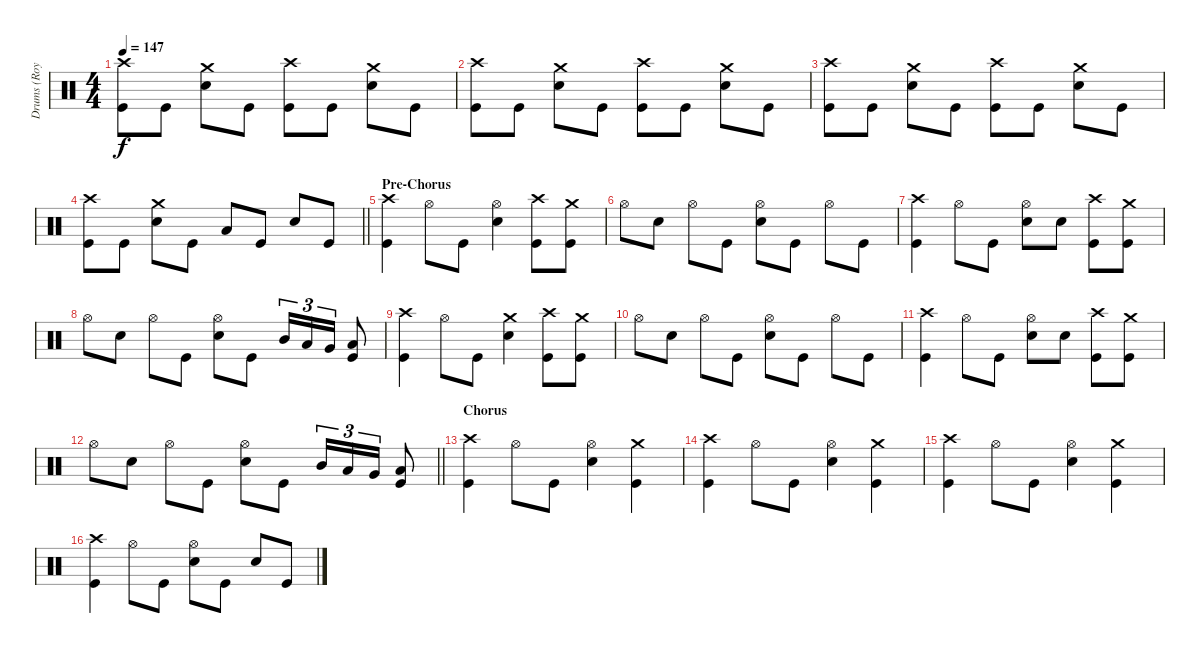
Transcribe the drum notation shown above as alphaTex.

\track ("Drums (Roy)" "Drums (Roy") {instrument percussion}
\staff {score}
\articulation defaults
\ts (4 4)
\tempo 147
\clef neutral
\ks c
("Crash high (hit)" "Kick (hit)").8{dy f} "Kick (hit)".8 ("Crash medium (hit)" "Snare (hit) 2").8 "Kick (hit)".8 ("Crash high (hit)" "Kick (hit)").8 "Kick (hit)".8 ("Crash medium (hit)" "Snare (hit) 2").8 "Kick (hit)".8 |
("Crash high (hit)" "Kick (hit)").8 "Kick (hit)".8 ("Crash medium (hit)" "Snare (hit) 2").8 "Kick (hit)".8 ("Crash high (hit)" "Kick (hit)").8 "Kick (hit)".8 ("Crash medium (hit)" "Snare (hit) 2").8 "Kick (hit)".8 |
("Crash high (hit)" "Kick (hit)").8 "Kick (hit)".8 ("Crash medium (hit)" "Snare (hit) 2").8 "Kick (hit)".8 ("Crash high (hit)" "Kick (hit)").8 "Kick (hit)".8 ("Crash medium (hit)" "Snare (hit) 2").8 "Kick (hit)".8 |
\barLineRight lightlight
("Crash high (hit)" "Kick (hit)").8 "Kick (hit)".8 ("Crash medium (hit)" "Snare (hit) 2").8 "Kick (hit)".8 "Low Tom (hit)".8 "Kick (hit)".8 "Snare (hit) 2".8 "Kick (hit)".8 |
\section ("" "Pre-Chorus")
("Crash high (hit)" "Kick (hit)").4 "Hi-Hat (open)".8 "Kick (hit)".8 ("Hi-Hat (open)" "Snare (hit) 2").4 ("Crash high (hit)" "Kick (hit)").8 ("Crash medium (hit)" "Kick (hit)").8 |
"Hi-Hat (open)".8 "Snare (hit) 2".8 "Hi-Hat (open)".8 "Kick (hit)".8 ("Hi-Hat (open)" "Snare (hit) 2").8 "Kick (hit)".8 "Hi-Hat (open)".8 "Kick (hit)".8 |
("Crash high (hit)" "Kick (hit)").4 "Hi-Hat (open)".8 "Kick (hit)".8 ("Hi-Hat (open)" "Snare (hit) 2").8 "Snare (hit) 2".8 ("Crash high (hit)" "Kick (hit)").8 ("Crash medium (hit)" "Kick (hit)").8 |
"Hi-Hat (open)".8 "Snare (hit) 2".8 "Hi-Hat (open)".8 "Kick (hit)".8 ("Hi-Hat (open)" "Snare (hit) 2").8 "Kick (hit)".8 "Mid Tom (hit)".16{tu (3 2)} "Low Tom (hit)".16{tu (3 2)} "Very Low Tom (hit)".16{tu (3 2)} ("Low Floor Tom (hit)" "Kick (hit)").8 |
("Crash high (hit)" "Kick (hit)").4 "Hi-Hat (open)".8 "Kick (hit)".8 ("Crash medium (hit)" "Snare (hit) 2").4 ("Crash high (hit)" "Kick (hit)").8 ("Crash medium (hit)" "Kick (hit)").8 |
"Hi-Hat (open)".8 "Snare (hit) 2".8 "Hi-Hat (open)".8 "Kick (hit)".8 ("Hi-Hat (open)" "Snare (hit) 2").8 "Kick (hit)".8 "Hi-Hat (open)".8 "Kick (hit)".8 |
("Crash high (hit)" "Kick (hit)").4 "Hi-Hat (open)".8 "Kick (hit)".8 ("Hi-Hat (open)" "Snare (hit) 2").8 "Snare (hit) 2".8 ("Crash high (hit)" "Kick (hit)").8 ("Crash medium (hit)" "Kick (hit)").8 |
\barLineRight lightlight "Hi-Hat (open)".8 "Snare (hit) 2".8 "Hi-Hat (open)".8 "Kick (hit)".8
("Hi-Hat (open)" "Snare (hit) 2").8 "Kick (hit)".8 "Mid Tom (hit)".16{tu (3 2)} "Low Tom (hit)".16{tu (3 2)} "Very Low Tom (hit)".16{tu (3 2)} ("Low Floor Tom (hit)" "Kick (hit)").8 |
\section ("" "Chorus")
("Crash high (hit)" "Kick (hit)").4 "Hi-Hat (open)".8 "Kick (hit)".8 ("Hi-Hat (open)" "Snare (hit) 2").4 ("Crash medium (hit)" "Kick (hit)").4 |
("Crash high (hit)" "Kick (hit)").4 "Hi-Hat (open)".8 "Kick (hit)".8 ("Hi-Hat (open)" "Snare (hit) 2").4 ("Crash medium (hit)" "Kick (hit)").4 |
("Crash high (hit)" "Kick (hit)").4 "Hi-Hat (open)".8 "Kick (hit)".8 ("Hi-Hat (open)" "Snare (hit) 2").4 ("Crash medium (hit)" "Kick (hit)").4 |
("Crash high (hit)" "Kick (hit)").4 "Hi-Hat (open)".8 "Kick (hit)".8 ("Hi-Hat (open)" "Snare (hit) 2").8 "Kick (hit)".8 "Snare (hit) 2".8 "Kick (hit)".8
